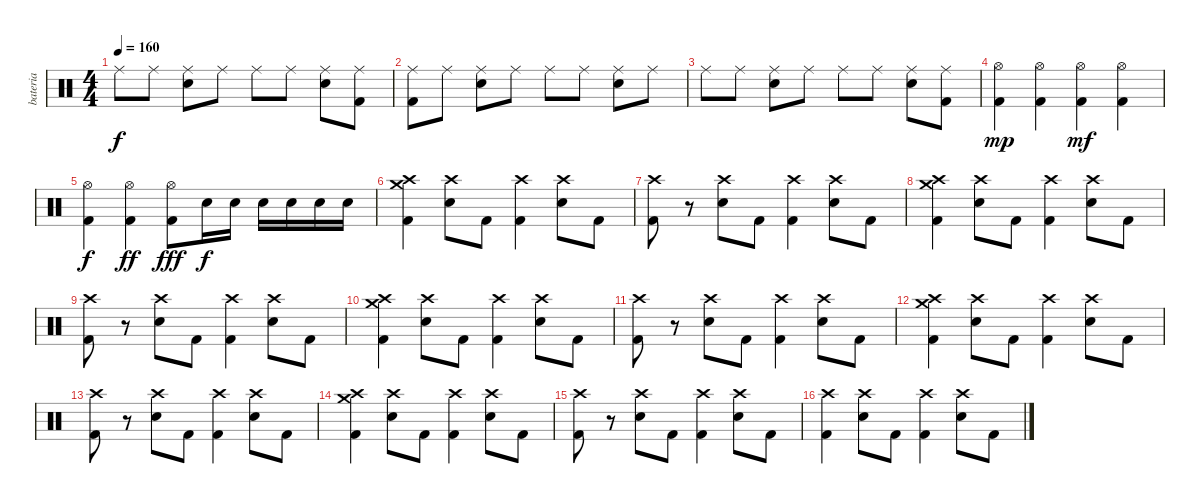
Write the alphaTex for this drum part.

\track ("bateria" "bateria") {instrument percussion}
\staff {score}
\articulation defaults
\ts (4 4)
\tempo 160
\clef neutral
\ks c "Ride (middle)".8{dy f} "Ride (middle)".8
("Ride (middle)" "Snare (hit) 2").8 "Ride (middle)".8 "Ride (middle)".8 "Ride (middle)".8 ("Ride (middle)" "Snare (hit) 2").8 ("Ride (middle)" "Kick (hit) 2").8 |
("Ride (middle)" "Kick (hit) 2").8 "Ride (middle)".8 ("Ride (middle)" "Snare (hit) 2").8 "Ride (middle)".8 "Ride (middle)".8 "Ride (middle)".8 ("Ride (middle)" "Snare (hit) 2").8 "Ride (middle)".8 |
"Ride (middle)".8 "Ride (middle)".8 ("Ride (middle)" "Snare (hit) 2").8 "Ride (middle)".8 "Ride (middle)".8 "Ride (middle)".8 ("Ride (middle)" "Snare (hit) 2").8 ("Ride (middle)" "Kick (hit) 2").8 |
("Hi-Hat (open)" "Kick (hit) 2").4{dy mp} ("Hi-Hat (open)" "Kick (hit) 2").4 ("Hi-Hat (open)" "Kick (hit) 2").4{dy mf} ("Hi-Hat (open)" "Kick (hit) 2").4 |
("Hi-Hat (open)" "Kick (hit) 2").4{dy f} ("Hi-Hat (open)" "Kick (hit) 2").4{dy ff} ("Hi-Hat (open)" "Kick (hit) 2").8{dy fff} "Snare (hit) 2".16{dy f} "Snare (hit) 2".16 "Snare (hit) 2".16 "Snare (hit) 2".16 "Snare (hit) 2".16 "Snare (hit) 2".16 |
("Crash medium (hit)" "Crash high (hit)" "Kick (hit) 2").4 ("Crash high (hit)" "Snare (hit) 2").8 "Kick (hit) 2".8 ("Crash high (hit)" "Kick (hit) 2").4 ("Crash high (hit)" "Snare (hit) 2").8 "Kick (hit) 2".8 |
("Crash high (hit)" "Kick (hit) 2").8 r.8 ("Crash high (hit)" "Snare (hit) 2").8 "Kick (hit) 2".8 ("Crash high (hit)" "Kick (hit) 2").4 ("Crash high (hit)" "Snare (hit) 2").8 "Kick (hit) 2".8 |
("Crash medium (hit)" "Crash high (hit)" "Kick (hit) 2").4 ("Crash high (hit)" "Snare (hit) 2").8 "Kick (hit) 2".8 ("Crash high (hit)" "Kick (hit) 2").4 ("Crash high (hit)" "Snare (hit) 2").8 "Kick (hit) 2".8 |
("Crash high (hit)" "Kick (hit) 2").8 r.8 ("Crash high (hit)" "Snare (hit) 2").8 "Kick (hit) 2".8 ("Crash high (hit)" "Kick (hit) 2").4 ("Crash high (hit)" "Snare (hit) 2").8 "Kick (hit) 2".8 |
("Crash medium (hit)" "Crash high (hit)" "Kick (hit) 2").4 ("Crash high (hit)" "Snare (hit) 2").8 "Kick (hit) 2".8 ("Crash high (hit)" "Kick (hit) 2").4 ("Crash high (hit)" "Snare (hit) 2").8 "Kick (hit) 2".8 |
("Crash high (hit)" "Kick (hit) 2").8 r.8 ("Crash high (hit)" "Snare (hit) 2").8 "Kick (hit) 2".8 ("Crash high (hit)" "Kick (hit) 2").4 ("Crash high (hit)" "Snare (hit) 2").8 "Kick (hit) 2".8 |
("Crash medium (hit)" "Crash high (hit)" "Kick (hit) 2").4 ("Crash high (hit)" "Snare (hit) 2").8 "Kick (hit) 2".8 ("Crash high (hit)" "Kick (hit) 2").4 ("Crash high (hit)" "Snare (hit) 2").8 "Kick (hit) 2".8 |
("Crash high (hit)" "Kick (hit) 2").8 r.8 ("Crash high (hit)" "Snare (hit) 2").8 "Kick (hit) 2".8 ("Crash high (hit)" "Kick (hit) 2").4 ("Crash high (hit)" "Snare (hit) 2").8 "Kick (hit) 2".8 |
("Crash medium (hit)" "Crash high (hit)" "Kick (hit) 2").4 ("Crash high (hit)" "Snare (hit) 2").8 "Kick (hit) 2".8 ("Crash high (hit)" "Kick (hit) 2").4 ("Crash high (hit)" "Snare (hit) 2").8 "Kick (hit) 2".8 |
("Crash high (hit)" "Kick (hit) 2").8 r.8 ("Crash high (hit)" "Snare (hit) 2").8 "Kick (hit) 2".8 ("Crash high (hit)" "Kick (hit) 2").4 ("Crash high (hit)" "Snare (hit) 2").8 "Kick (hit) 2".8 |
("Crash high (hit)" "Kick (hit) 2").4 ("Crash high (hit)" "Snare (hit) 2").8 "Kick (hit) 2".8 ("Crash high (hit)" "Kick (hit) 2").4 ("Crash high (hit)" "Snare (hit) 2").8 "Kick (hit) 2".8
